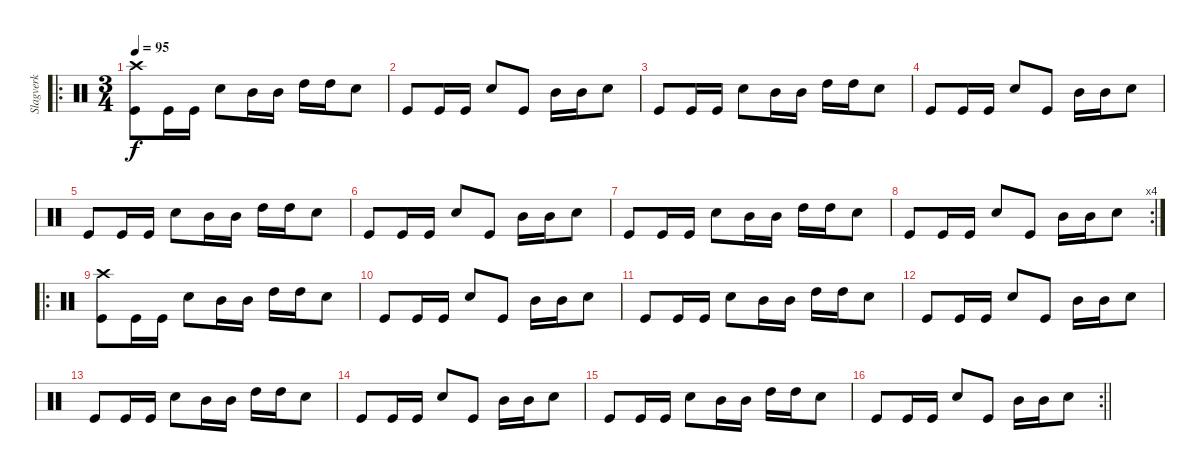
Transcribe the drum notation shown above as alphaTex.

\track ("Slagverk" "Slagverk") {instrument percussion}
\staff {score}
\articulation defaults
\ro
\ts (3 4)
\section ("" "")
\tempo 95
\clef neutral
\ks c
("Crash high (hit)" "Kick (hit)").8{dy f} "Kick (hit)".16 "Kick (hit)".16 "Snare (hit) 2".8 "Mid Tom (hit)".16 "Mid Tom (hit)".16 "High Tom (hit)".16 "High Tom (hit)".16 "Snare (hit) 2".8 |
"Kick (hit)".8 "Kick (hit)".16 "Kick (hit)".16 "Snare (hit) 2".8 "Kick (hit)".8 "Mid Tom (hit)".16 "Mid Tom (hit)".16 "Snare (hit) 2".8 |
"Kick (hit)".8 "Kick (hit)".16 "Kick (hit)".16 "Snare (hit) 2".8 "Mid Tom (hit)".16 "Mid Tom (hit)".16 "High Tom (hit)".16 "High Tom (hit)".16 "Snare (hit) 2".8 |
"Kick (hit)".8 "Kick (hit)".16 "Kick (hit)".16 "Snare (hit) 2".8 "Kick (hit)".8 "Mid Tom (hit)".16 "Mid Tom (hit)".16 "Snare (hit) 2".8 |
"Kick (hit)".8 "Kick (hit)".16 "Kick (hit)".16 "Snare (hit) 2".8 "Mid Tom (hit)".16 "Mid Tom (hit)".16 "High Tom (hit)".16 "High Tom (hit)".16 "Snare (hit) 2".8 |
"Kick (hit)".8 "Kick (hit)".16 "Kick (hit)".16 "Snare (hit) 2".8 "Kick (hit)".8 "Mid Tom (hit)".16 "Mid Tom (hit)".16 "Snare (hit) 2".8 |
"Kick (hit)".8 "Kick (hit)".16 "Kick (hit)".16 "Snare (hit) 2".8 "Mid Tom (hit)".16 "Mid Tom (hit)".16 "High Tom (hit)".16 "High Tom (hit)".16 "Snare (hit) 2".8 |
\rc 4 "Kick (hit)".8 "Kick (hit)".16 "Kick (hit)".16 "Snare (hit) 2".8 "Kick (hit)".8 "Mid Tom (hit)".16 "Mid Tom (hit)".16 "Snare (hit) 2".8
|
\ro
("Crash high (hit)" "Kick (hit)").8 "Kick (hit)".16 "Kick (hit)".16 "Snare (hit) 2".8 "Mid Tom (hit)".16 "Mid Tom (hit)".16 "High Tom (hit)".16 "High Tom (hit)".16 "Snare (hit) 2".8 |
"Kick (hit)".8 "Kick (hit)".16 "Kick (hit)".16 "Snare (hit) 2".8 "Kick (hit)".8 "Mid Tom (hit)".16 "Mid Tom (hit)".16 "Snare (hit) 2".8 |
"Kick (hit)".8 "Kick (hit)".16 "Kick (hit)".16 "Snare (hit) 2".8 "Mid Tom (hit)".16 "Mid Tom (hit)".16 "High Tom (hit)".16 "High Tom (hit)".16 "Snare (hit) 2".8 |
"Kick (hit)".8 "Kick (hit)".16 "Kick (hit)".16 "Snare (hit) 2".8 "Kick (hit)".8 "Mid Tom (hit)".16 "Mid Tom (hit)".16 "Snare (hit) 2".8 |
"Kick (hit)".8 "Kick (hit)".16 "Kick (hit)".16 "Snare (hit) 2".8 "Mid Tom (hit)".16 "Mid Tom (hit)".16 "High Tom (hit)".16 "High Tom (hit)".16 "Snare (hit) 2".8 |
"Kick (hit)".8 "Kick (hit)".16 "Kick (hit)".16 "Snare (hit) 2".8 "Kick (hit)".8 "Mid Tom (hit)".16 "Mid Tom (hit)".16 "Snare (hit) 2".8 |
"Kick (hit)".8 "Kick (hit)".16 "Kick (hit)".16 "Snare (hit) 2".8 "Mid Tom (hit)".16 "Mid Tom (hit)".16 "High Tom (hit)".16 "High Tom (hit)".16 "Snare (hit) 2".8 |
\rc 2
\barLineRight lightlight "Kick (hit)".8 "Kick (hit)".16 "Kick (hit)".16 "Snare (hit) 2".8 "Kick (hit)".8 "Mid Tom (hit)".16 "Mid Tom (hit)".16 "Snare (hit) 2".8
